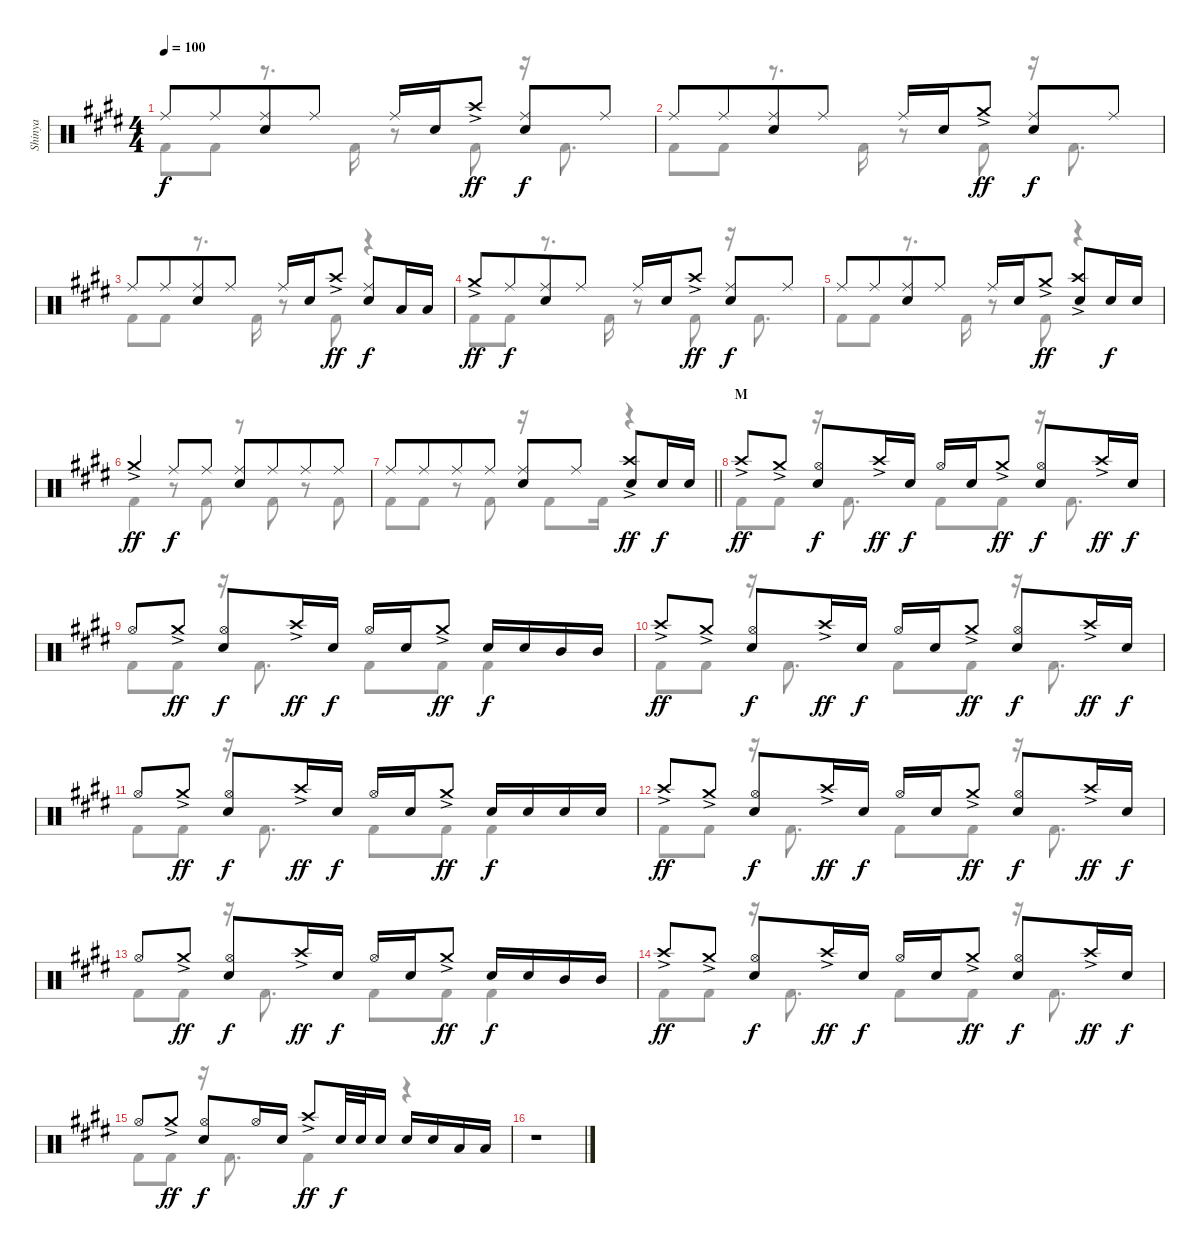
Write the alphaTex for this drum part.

\track ("Shinya" "Shinya") {instrument percussion}
\staff {score}
\articulation defaults
\voice
\ts (4 4)
\tempo 100
\clef neutral
\ks c#minor "Ride (middle)".8{dy f} "Ride (middle)".8{beam merge}
("Ride (middle)" "Snare (hit) 2").8 "Ride (middle)".8 "Ride (middle)".16 "Snare (hit) 2".16 "Crash high (hit)"{ac}.8{dy ff} ("Ride (middle)" "Snare (hit) 2").8{dy f} "Ride (middle)".8 |
"Ride (middle)".8 "Ride (middle)".8{beam merge} ("Ride (middle)" "Snare (hit) 2").8 "Ride (middle)".8 "Ride (middle)".16 "Snare (hit) 2".16 "Crash medium (hit)"{ac}.8{dy ff} ("Ride (middle)" "Snare (hit) 2").8{dy f} "Ride (middle)".8 |
"Ride (middle)".8 "Ride (middle)".8{beam merge} ("Ride (middle)" "Snare (hit) 2").8 "Ride (middle)".8 "Ride (middle)".16 "Snare (hit) 2".16 "Crash high (hit)"{ac}.8{dy ff} ("Ride (middle)" "Snare (hit) 2").8{dy f} "Low Tom (hit)".16 "Low Tom (hit)".16 |
"Crash medium (hit)"{ac}.8{dy ff} "Ride (middle)".8{dy f beam merge} ("Ride (middle)" "Snare (hit) 2").8 "Ride (middle)".8 "Ride (middle)".16 "Snare (hit) 2".16 "Crash high (hit)"{ac}.8{dy ff} ("Ride (middle)" "Snare (hit) 2").8{dy f} "Ride (middle)".8 |
"Ride (middle)".8 "Ride (middle)".8{beam merge} ("Ride (middle)" "Snare (hit) 2").8 "Ride (middle)".8 "Ride (middle)".16 "Snare (hit) 2".16 "Crash medium (hit)"{ac}.8{dy ff} ("Crash high (hit)"{ac} "Snare (hit) 2").8 "Snare (hit) 2".16{dy f} "Snare (hit) 2".16 |
"Crash medium (hit)"{ac}.4{dy ff} "Ride (middle)".8{dy f} "Ride (middle)".8 ("Ride (middle)" "Snare (hit) 2").8 "Ride (middle)".8{beam merge} "Ride (middle)".8 "Ride (middle)".8 |
\barLineRight lightlight "Ride (middle)".8 "Ride (middle)".8{beam merge} "Ride (middle)".8 "Ride (middle)".8
("Ride (middle)" "Snare (hit) 2").8 "Ride (middle)".8 ("Crash high (hit)"{ac} "Snare (hit) 2").8{dy ff} "Snare (hit) 2".16{dy f} "Snare (hit) 2".16 |
\section ("" "M")
"Crash high (hit)"{ac}.8{dy ff} "Crash medium (hit)"{ac}.8 ("Hi-Hat (open)" "Snare (hit) 2").8{dy f} "Crash high (hit)"{ac}.16{dy ff} "Snare (hit) 2".16{dy f} "Hi-Hat (open)".16 "Snare (hit) 2".16 "Crash medium (hit)"{ac}.8{dy ff} ("Hi-Hat (open)" "Snare (hit) 2").8{dy f} "Crash high (hit)"{ac}.16{dy ff} "Snare (hit) 2".16{dy f} |
"Hi-Hat (open)".8 "Crash medium (hit)"{ac}.8{dy ff} ("Hi-Hat (open)" "Snare (hit) 2").8{dy f} "Crash high (hit)"{ac}.16{dy ff} "Snare (hit) 2".16{dy f} "Hi-Hat (open)".16 "Snare (hit) 2".16 "Crash medium (hit)"{ac}.8{dy ff} "Snare (hit) 2".16{dy f} "Snare (hit) 2".16 "Mid Tom (hit)".16 "Mid Tom (hit)".16 |
"Crash high (hit)"{ac}.8{dy ff} "Crash medium (hit)"{ac}.8 ("Hi-Hat (open)" "Snare (hit) 2").8{dy f} "Crash high (hit)"{ac}.16{dy ff} "Snare (hit) 2".16{dy f} "Hi-Hat (open)".16 "Snare (hit) 2".16 "Crash medium (hit)"{ac}.8{dy ff} ("Hi-Hat (open)" "Snare (hit) 2").8{dy f} "Crash high (hit)"{ac}.16{dy ff} "Snare (hit) 2".16{dy f} |
"Hi-Hat (open)".8 "Crash medium (hit)"{ac}.8{dy ff} ("Hi-Hat (open)" "Snare (hit) 2").8{dy f} "Crash high (hit)"{ac}.16{dy ff} "Snare (hit) 2".16{dy f} "Hi-Hat (open)".16 "Snare (hit) 2".16 "Crash medium (hit)"{ac}.8{dy ff} "Snare (hit) 2".16{dy f} "Snare (hit) 2".16 "Snare (hit) 2".16 "Snare (hit) 2".16 |
"Crash high (hit)"{ac}.8{dy ff} "Crash medium (hit)"{ac}.8 ("Hi-Hat (open)" "Snare (hit) 2").8{dy f} "Crash high (hit)"{ac}.16{dy ff} "Snare (hit) 2".16{dy f} "Hi-Hat (open)".16 "Snare (hit) 2".16 "Crash medium (hit)"{ac}.8{dy ff} ("Hi-Hat (open)" "Snare (hit) 2").8{dy f} "Crash high (hit)"{ac}.16{dy ff} "Snare (hit) 2".16{dy f} |
"Hi-Hat (open)".8 "Crash medium (hit)"{ac}.8{dy ff} ("Hi-Hat (open)" "Snare (hit) 2").8{dy f} "Crash high (hit)"{ac}.16{dy ff} "Snare (hit) 2".16{dy f} "Hi-Hat (open)".16 "Snare (hit) 2".16 "Crash medium (hit)"{ac}.8{dy ff} "Snare (hit) 2".16{dy f} "Snare (hit) 2".16 "Mid Tom (hit)".16 "Mid Tom (hit)".16 |
"Crash high (hit)"{ac}.8{dy ff} "Crash medium (hit)"{ac}.8 ("Hi-Hat (open)" "Snare (hit) 2").8{dy f} "Crash high (hit)"{ac}.16{dy ff} "Snare (hit) 2".16{dy f} "Hi-Hat (open)".16 "Snare (hit) 2".16 "Crash medium (hit)"{ac}.8{dy ff} ("Hi-Hat (open)" "Snare (hit) 2").8{dy f} "Crash high (hit)"{ac}.16{dy ff} "Snare (hit) 2".16{dy f} |
"Hi-Hat (open)".8 "Crash medium (hit)"{ac}.8{dy ff} ("Hi-Hat (open)" "Snare (hit) 2").8{dy f} "Hi-Hat (open)".16 "Snare (hit) 2".16 "Crash high (hit)"{ac}.8{dy ff} "Snare (hit) 2".32{dy f} "Snare (hit) 2".32 "Snare (hit) 2".16 "Snare (hit) 2".16 "Snare (hit) 2".16 "Low Tom (hit)".16 "Low Tom (hit)".16 |
r.1
\voice
\clef neutral
\ottava regular
\simile none
\ks c#minor "Kick (hit) 2".8{dy f} "Kick (hit) 2".8
r.8{d} "Kick (hit) 2".16 r.8 "Kick (hit) 2".8 r.16 "Kick (hit) 2".8{d} |
"Kick (hit) 2".8 "Kick (hit) 2".8 r.8{d} "Kick (hit) 2".16 r.8 "Kick (hit) 2".8 r.16 "Kick (hit) 2".8{d} |
"Kick (hit) 2".8 "Kick (hit) 2".8 r.8{d} "Kick (hit) 2".16 r.8 "Kick (hit) 2".8 r.4 |
"Kick (hit) 2".8 "Kick (hit) 2".8 r.8{d} "Kick (hit) 2".16 r.8 "Kick (hit) 2".8 r.16 "Kick (hit) 2".8{d} |
"Kick (hit) 2".8 "Kick (hit) 2".8 r.8{d} "Kick (hit) 2".16 r.8 "Kick (hit) 2".8 r.4 |
"Kick (hit) 2".4 r.8 "Kick (hit) 2".8 r.8 "Kick (hit) 2".8 r.8 "Kick (hit) 2".8 |
\barLineRight lightlight "Kick (hit) 2".8 "Kick (hit) 2".8
r.8 "Kick (hit) 2".8 r.16 "Kick (hit) 2".8 "Kick (hit) 2".16 r.4 |
"Kick (hit) 2".8 "Kick (hit) 2".8 r.16 "Kick (hit) 2".8{d} "Kick (hit) 2".8 "Kick (hit) 2".8 r.16 "Kick (hit) 2".8{d} |
"Kick (hit) 2".8 "Kick (hit) 2".8 r.16 "Kick (hit) 2".8{d} "Kick (hit) 2".8 "Kick (hit) 2".8 "Kick (hit) 2".4 |
"Kick (hit) 2".8 "Kick (hit) 2".8 r.16 "Kick (hit) 2".8{d} "Kick (hit) 2".8 "Kick (hit) 2".8 r.16 "Kick (hit) 2".8{d} |
"Kick (hit) 2".8 "Kick (hit) 2".8 r.16 "Kick (hit) 2".8{d} "Kick (hit) 2".8 "Kick (hit) 2".8 "Kick (hit) 2".4 |
"Kick (hit) 2".8 "Kick (hit) 2".8 r.16 "Kick (hit) 2".8{d} "Kick (hit) 2".8 "Kick (hit) 2".8 r.16 "Kick (hit) 2".8{d} |
"Kick (hit) 2".8 "Kick (hit) 2".8 r.16 "Kick (hit) 2".8{d} "Kick (hit) 2".8 "Kick (hit) 2".8 "Kick (hit) 2".4 |
"Kick (hit) 2".8 "Kick (hit) 2".8 r.16 "Kick (hit) 2".8{d} "Kick (hit) 2".8 "Kick (hit) 2".8 r.16 "Kick (hit) 2".8{d} |
"Kick (hit) 2".8 "Kick (hit) 2".8 r.16 "Kick (hit) 2".8{d} "Kick (hit) 2".4 r.4 |
r.1
